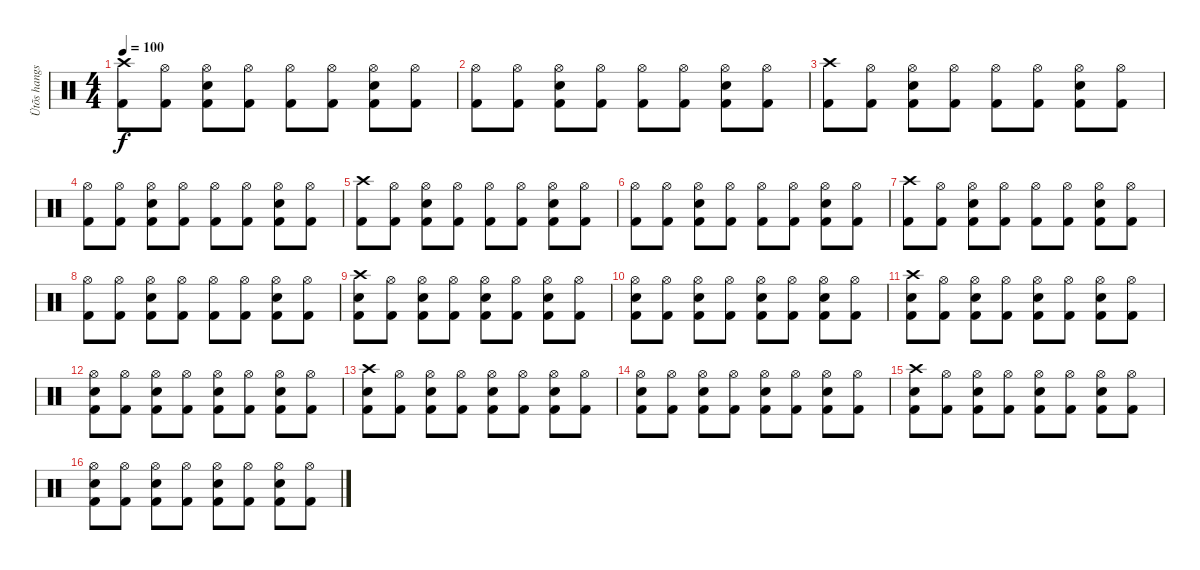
\track ("Ütõs hangszer" "Ütõs hangs") {instrument percussion}
\staff {score}
\articulation defaults
\ts (4 4)
\tempo 100
\clef neutral
\ks c
("Crash high (hit)" "Kick (hit) 2").8{dy f} ("Hi-Hat (open)" "Kick (hit) 2").8 ("Hi-Hat (open)" "Snare (hit) 2" "Kick (hit) 2").8 ("Hi-Hat (open)" "Kick (hit) 2").8 ("Hi-Hat (open)" "Kick (hit) 2").8 ("Hi-Hat (open)" "Kick (hit) 2").8 ("Hi-Hat (open)" "Snare (hit) 2" "Kick (hit) 2").8 ("Hi-Hat (open)" "Kick (hit) 2").8 |
("Hi-Hat (open)" "Kick (hit) 2").8 ("Hi-Hat (open)" "Kick (hit) 2").8 ("Hi-Hat (open)" "Snare (hit) 2" "Kick (hit) 2").8 ("Hi-Hat (open)" "Kick (hit) 2").8 ("Hi-Hat (open)" "Kick (hit) 2").8 ("Hi-Hat (open)" "Kick (hit) 2").8 ("Hi-Hat (open)" "Snare (hit) 2" "Kick (hit) 2").8 ("Hi-Hat (open)" "Kick (hit) 2").8 |
("Crash high (hit)" "Kick (hit) 2").8 ("Hi-Hat (open)" "Kick (hit) 2").8 ("Hi-Hat (open)" "Snare (hit) 2" "Kick (hit) 2").8 ("Hi-Hat (open)" "Kick (hit) 2").8 ("Hi-Hat (open)" "Kick (hit) 2").8 ("Hi-Hat (open)" "Kick (hit) 2").8 ("Hi-Hat (open)" "Snare (hit) 2" "Kick (hit) 2").8 ("Hi-Hat (open)" "Kick (hit) 2").8 |
("Hi-Hat (open)" "Kick (hit) 2").8 ("Hi-Hat (open)" "Kick (hit) 2").8 ("Hi-Hat (open)" "Snare (hit) 2" "Kick (hit) 2").8 ("Hi-Hat (open)" "Kick (hit) 2").8 ("Hi-Hat (open)" "Kick (hit) 2").8 ("Hi-Hat (open)" "Kick (hit) 2").8 ("Hi-Hat (open)" "Snare (hit) 2" "Kick (hit) 2").8 ("Hi-Hat (open)" "Kick (hit) 2").8 |
("Crash high (hit)" "Kick (hit) 2").8 ("Hi-Hat (open)" "Kick (hit) 2").8 ("Hi-Hat (open)" "Snare (hit) 2" "Kick (hit) 2").8 ("Hi-Hat (open)" "Kick (hit) 2").8 ("Hi-Hat (open)" "Kick (hit) 2").8 ("Hi-Hat (open)" "Kick (hit) 2").8 ("Hi-Hat (open)" "Snare (hit) 2" "Kick (hit) 2").8 ("Hi-Hat (open)" "Kick (hit) 2").8 |
("Hi-Hat (open)" "Kick (hit) 2").8 ("Hi-Hat (open)" "Kick (hit) 2").8 ("Hi-Hat (open)" "Snare (hit) 2" "Kick (hit) 2").8 ("Hi-Hat (open)" "Kick (hit) 2").8 ("Hi-Hat (open)" "Kick (hit) 2").8 ("Hi-Hat (open)" "Kick (hit) 2").8 ("Hi-Hat (open)" "Snare (hit) 2" "Kick (hit) 2").8 ("Hi-Hat (open)" "Kick (hit) 2").8 |
("Crash high (hit)" "Kick (hit) 2").8 ("Hi-Hat (open)" "Kick (hit) 2").8 ("Hi-Hat (open)" "Snare (hit) 2" "Kick (hit) 2").8 ("Hi-Hat (open)" "Kick (hit) 2").8 ("Hi-Hat (open)" "Kick (hit) 2").8 ("Hi-Hat (open)" "Kick (hit) 2").8 ("Hi-Hat (open)" "Snare (hit) 2" "Kick (hit) 2").8 ("Hi-Hat (open)" "Kick (hit) 2").8 |
("Hi-Hat (open)" "Kick (hit) 2").8 ("Hi-Hat (open)" "Kick (hit) 2").8 ("Hi-Hat (open)" "Snare (hit) 2" "Kick (hit) 2").8 ("Hi-Hat (open)" "Kick (hit) 2").8 ("Hi-Hat (open)" "Kick (hit) 2").8 ("Hi-Hat (open)" "Kick (hit) 2").8 ("Hi-Hat (open)" "Snare (hit) 2" "Kick (hit) 2").8 ("Hi-Hat (open)" "Kick (hit) 2").8 |
("Crash high (hit)" "Snare (hit) 2" "Kick (hit) 2").8 ("Hi-Hat (open)" "Kick (hit) 2").8 ("Hi-Hat (open)" "Snare (hit) 2" "Kick (hit) 2").8 ("Hi-Hat (open)" "Kick (hit) 2").8 ("Hi-Hat (open)" "Snare (hit) 2" "Kick (hit) 2").8 ("Hi-Hat (open)" "Kick (hit) 2").8 ("Hi-Hat (open)" "Snare (hit) 2" "Kick (hit) 2").8 ("Hi-Hat (open)" "Kick (hit) 2").8 |
("Hi-Hat (open)" "Snare (hit) 2" "Kick (hit) 2").8 ("Hi-Hat (open)" "Kick (hit) 2").8 ("Hi-Hat (open)" "Snare (hit) 2" "Kick (hit) 2").8 ("Hi-Hat (open)" "Kick (hit) 2").8 ("Hi-Hat (open)" "Snare (hit) 2" "Kick (hit) 2").8 ("Hi-Hat (open)" "Kick (hit) 2").8 ("Hi-Hat (open)" "Snare (hit) 2" "Kick (hit) 2").8 ("Hi-Hat (open)" "Kick (hit) 2").8 |
("Crash high (hit)" "Snare (hit) 2" "Kick (hit) 2").8 ("Hi-Hat (open)" "Kick (hit) 2").8 ("Hi-Hat (open)" "Snare (hit) 2" "Kick (hit) 2").8 ("Hi-Hat (open)" "Kick (hit) 2").8 ("Hi-Hat (open)" "Snare (hit) 2" "Kick (hit) 2").8 ("Hi-Hat (open)" "Kick (hit) 2").8 ("Hi-Hat (open)" "Snare (hit) 2" "Kick (hit) 2").8 ("Hi-Hat (open)" "Kick (hit) 2").8 |
("Hi-Hat (open)" "Snare (hit) 2" "Kick (hit) 2").8 ("Hi-Hat (open)" "Kick (hit) 2").8 ("Hi-Hat (open)" "Snare (hit) 2" "Kick (hit) 2").8 ("Hi-Hat (open)" "Kick (hit) 2").8 ("Hi-Hat (open)" "Snare (hit) 2" "Kick (hit) 2").8 ("Hi-Hat (open)" "Kick (hit) 2").8 ("Hi-Hat (open)" "Snare (hit) 2" "Kick (hit) 2").8 ("Hi-Hat (open)" "Kick (hit) 2").8 |
("Crash high (hit)" "Snare (hit) 2" "Kick (hit) 2").8 ("Hi-Hat (open)" "Kick (hit) 2").8 ("Hi-Hat (open)" "Snare (hit) 2" "Kick (hit) 2").8 ("Hi-Hat (open)" "Kick (hit) 2").8 ("Hi-Hat (open)" "Snare (hit) 2" "Kick (hit) 2").8 ("Hi-Hat (open)" "Kick (hit) 2").8 ("Hi-Hat (open)" "Snare (hit) 2" "Kick (hit) 2").8 ("Hi-Hat (open)" "Kick (hit) 2").8 |
("Hi-Hat (open)" "Snare (hit) 2" "Kick (hit) 2").8 ("Hi-Hat (open)" "Kick (hit) 2").8 ("Hi-Hat (open)" "Snare (hit) 2" "Kick (hit) 2").8 ("Hi-Hat (open)" "Kick (hit) 2").8 ("Hi-Hat (open)" "Snare (hit) 2" "Kick (hit) 2").8 ("Hi-Hat (open)" "Kick (hit) 2").8 ("Hi-Hat (open)" "Snare (hit) 2" "Kick (hit) 2").8 ("Hi-Hat (open)" "Kick (hit) 2").8 |
("Crash high (hit)" "Snare (hit) 2" "Kick (hit) 2").8 ("Hi-Hat (open)" "Kick (hit) 2").8 ("Hi-Hat (open)" "Snare (hit) 2" "Kick (hit) 2").8 ("Hi-Hat (open)" "Kick (hit) 2").8 ("Hi-Hat (open)" "Snare (hit) 2" "Kick (hit) 2").8 ("Hi-Hat (open)" "Kick (hit) 2").8 ("Hi-Hat (open)" "Snare (hit) 2" "Kick (hit) 2").8 ("Hi-Hat (open)" "Kick (hit) 2").8 |
("Hi-Hat (open)" "Snare (hit) 2" "Kick (hit) 2").8 ("Hi-Hat (open)" "Kick (hit) 2").8 ("Hi-Hat (open)" "Snare (hit) 2" "Kick (hit) 2").8 ("Hi-Hat (open)" "Kick (hit) 2").8 ("Hi-Hat (open)" "Snare (hit) 2" "Kick (hit) 2").8 ("Hi-Hat (open)" "Kick (hit) 2").8 ("Hi-Hat (open)" "Snare (hit) 2" "Kick (hit) 2").8 ("Hi-Hat (open)" "Kick (hit) 2").8
